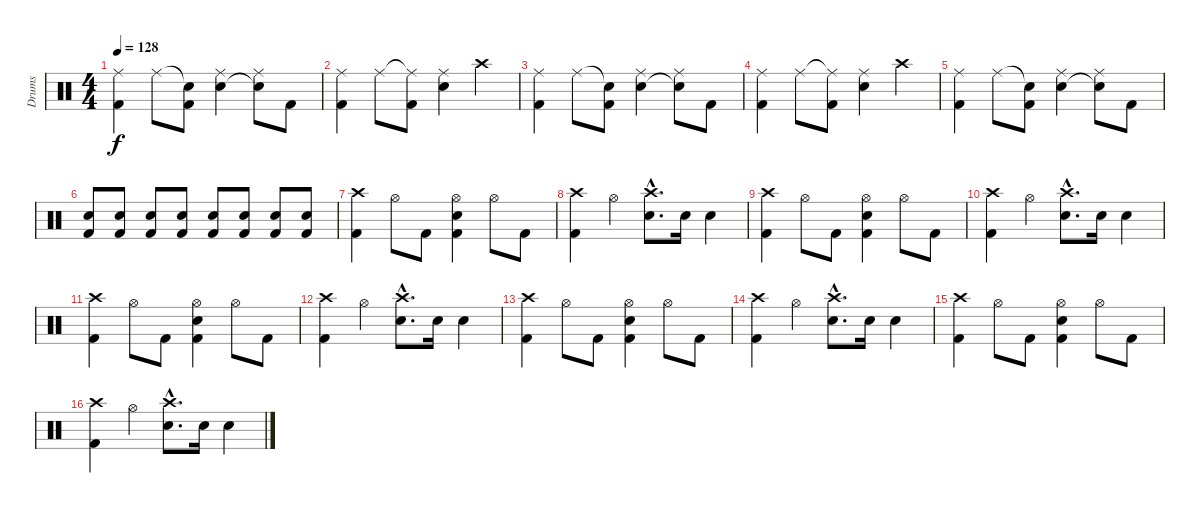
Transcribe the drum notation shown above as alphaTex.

\track ("Drums" "Drums") {instrument percussion}
\staff {score}
\articulation defaults
\ts (4 4)
\tempo 128
\clef neutral
\ks c
("Ride (middle)" "Kick (hit) 2").4{dy f} "Ride (middle)".8 ("Snare (hit)"{t} "Kick (hit) 2").8 ("Ride (middle)" "Snare (hit) 2").4 ("Ride (middle)" "Snare (hit)"{t}).8 "Kick (hit) 2".8 |
("Ride (middle)" "Kick (hit) 2").4 "Ride (middle)".8 ("Ride (middle)"{t} "Kick (hit) 2").8 ("Ride (middle)" "Snare (hit) 2").4 "Crash high (hit)".4 |
("Ride (middle)" "Kick (hit) 2").4 "Ride (middle)".8 ("Snare (hit)"{t} "Kick (hit) 2").8 ("Ride (middle)" "Snare (hit) 2").4 ("Ride (middle)" "Snare (hit)"{t}).8 "Kick (hit) 2".8 |
("Ride (middle)" "Kick (hit) 2").4 "Ride (middle)".8 ("Ride (middle)"{t} "Kick (hit) 2").8 ("Ride (middle)" "Snare (hit) 2").4 "Crash high (hit)".4 |
("Ride (middle)" "Kick (hit) 2").4 "Ride (middle)".8 ("Snare (hit)"{t} "Kick (hit) 2").8 ("Ride (middle)" "Snare (hit) 2").4 ("Ride (middle)" "Snare (hit)"{t}).8 "Kick (hit) 2".8 |
("Snare (hit) 2" "Kick (hit) 2").8 ("Snare (hit) 2" "Kick (hit) 2").8 ("Snare (hit) 2" "Kick (hit) 2").8 ("Snare (hit) 2" "Kick (hit) 2").8 ("Snare (hit) 2" "Kick (hit) 2").8 ("Snare (hit) 2" "Kick (hit) 2").8 ("Snare (hit) 2" "Kick (hit) 2").8 ("Snare (hit) 2" "Kick (hit) 2").8 |
("Crash high (hit)" "Kick (hit) 2").4 "Hi-Hat (open)".8 "Kick (hit) 2".8 ("Hi-Hat (open)" "Kick (hit) 2" "Snare (hit) 2").4 "Hi-Hat (open)".8 "Kick (hit) 2".8 |
("Crash high (hit)" "Kick (hit) 2").4 "Hi-Hat (open)".4 ("Crash high (hit)"{hac} "Snare (hit) 2"{hac}).8{d} "Snare (hit) 2".16 "Snare (hit) 2".4 |
("Crash high (hit)" "Kick (hit) 2").4 "Hi-Hat (open)".8 "Kick (hit) 2".8 ("Hi-Hat (open)" "Kick (hit) 2" "Snare (hit) 2").4 "Hi-Hat (open)".8 "Kick (hit) 2".8 |
("Crash high (hit)" "Kick (hit) 2").4 "Hi-Hat (open)".4 ("Crash high (hit)"{hac} "Snare (hit) 2"{hac}).8{d} "Snare (hit) 2".16 "Snare (hit) 2".4 |
("Crash high (hit)" "Kick (hit) 2").4 "Hi-Hat (open)".8 "Kick (hit) 2".8 ("Hi-Hat (open)" "Kick (hit) 2" "Snare (hit) 2").4 "Hi-Hat (open)".8 "Kick (hit) 2".8 |
("Crash high (hit)" "Kick (hit) 2").4 "Hi-Hat (open)".4 ("Crash high (hit)"{hac} "Snare (hit) 2"{hac}).8{d} "Snare (hit) 2".16 "Snare (hit) 2".4 |
("Crash high (hit)" "Kick (hit) 2").4 "Hi-Hat (open)".8 "Kick (hit) 2".8 ("Hi-Hat (open)" "Kick (hit) 2" "Snare (hit) 2").4 "Hi-Hat (open)".8 "Kick (hit) 2".8 |
("Crash high (hit)" "Kick (hit) 2").4 "Hi-Hat (open)".4 ("Crash high (hit)"{hac} "Snare (hit) 2"{hac}).8{d} "Snare (hit) 2".16 "Snare (hit) 2".4 |
("Crash high (hit)" "Kick (hit) 2").4 "Hi-Hat (open)".8 "Kick (hit) 2".8 ("Hi-Hat (open)" "Kick (hit) 2" "Snare (hit) 2").4 "Hi-Hat (open)".8 "Kick (hit) 2".8 |
("Crash high (hit)" "Kick (hit) 2").4 "Hi-Hat (open)".4 ("Crash high (hit)"{hac} "Snare (hit) 2"{hac}).8{d} "Snare (hit) 2".16 "Snare (hit) 2".4
